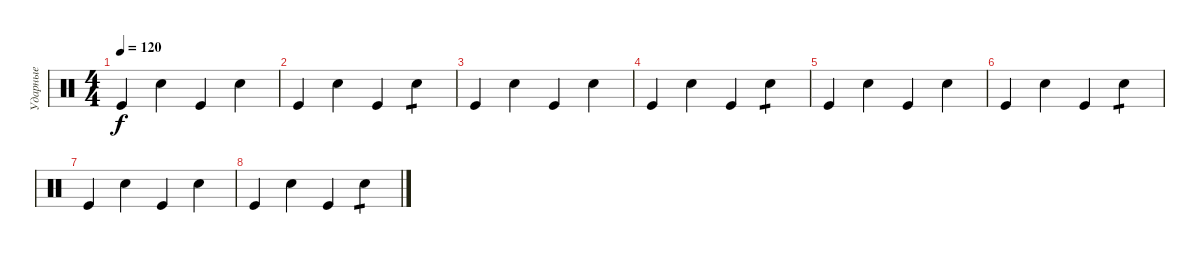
\track ("Ударные" "Ударные") {instrument percussion}
\staff {score}
\articulation defaults
\ts (4 4)
\tempo 120
\clef neutral
\ks c "Kick (hit)".4{dy f} "Snare (hit) 2".4 "Kick (hit)".4 "Snare (hit) 2".4
|
"Kick (hit)".4 "Snare (hit) 2".4 "Kick (hit)".4 "Snare (hit) 2".4{tp 1} |
"Kick (hit)".4 "Snare (hit) 2".4 "Kick (hit)".4 "Snare (hit) 2".4 |
"Kick (hit)".4 "Snare (hit) 2".4 "Kick (hit)".4 "Snare (hit) 2".4{tp 1} |
"Kick (hit)".4 "Snare (hit) 2".4 "Kick (hit)".4 "Snare (hit) 2".4 |
"Kick (hit)".4 "Snare (hit) 2".4 "Kick (hit)".4 "Snare (hit) 2".4{tp 1} |
"Kick (hit)".4 "Snare (hit) 2".4 "Kick (hit)".4 "Snare (hit) 2".4 |
"Kick (hit)".4 "Snare (hit) 2".4 "Kick (hit)".4 "Snare (hit) 2".4{tp 1}
